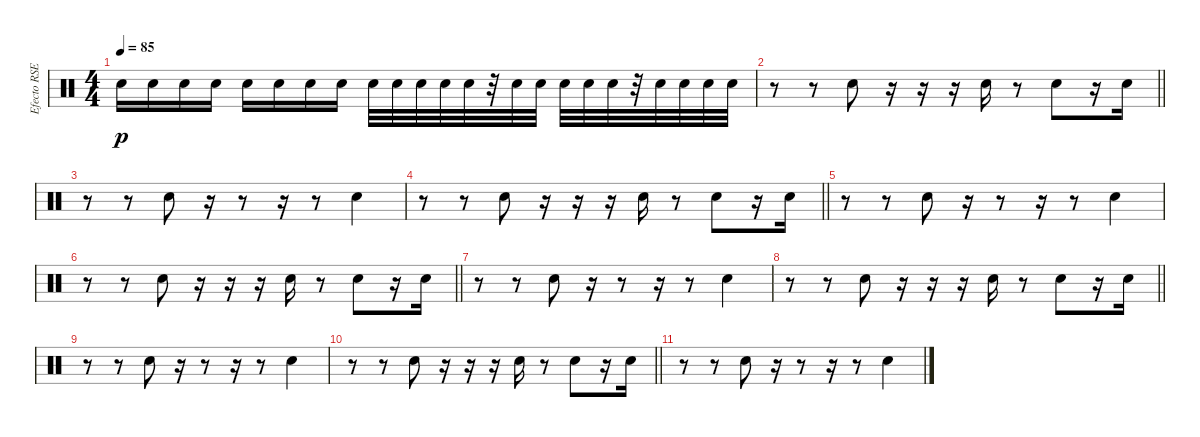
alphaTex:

\track ("Efecto RSE (GP5)" "Efecto RSE") {instrument percussion}
\staff {score}
\articulation defaults
\ts (4 4)
\tempo 85
\clef neutral
\ks c "Electric Snare (hit)".16{dy p} "Electric Snare (hit)".16 "Electric Snare (hit)".16 "Electric Snare (hit)".16 "Electric Snare (hit)".16 "Electric Snare (hit)".16 "Electric Snare (hit)".16 "Electric Snare (hit)".16 "Electric Snare (hit)".32 "Electric Snare (hit)".32 "Electric Snare (hit)".32 "Electric Snare (hit)".32 "Electric Snare (hit)".32
r.32 "Electric Snare (hit)".32 "Electric Snare (hit)".32 "Electric Snare (hit)".32 "Electric Snare (hit)".32 "Electric Snare (hit)".32 r.32 "Electric Snare (hit)".32 "Electric Snare (hit)".32 "Electric Snare (hit)".32 "Electric Snare (hit)".32 |
\barLineRight lightlight
r.8 r.8 "Electric Snare (hit)".8 r.16 r.16 r.16 "Electric Snare (hit)".16 r.8 "Electric Snare (hit)".8 r.16 "Electric Snare (hit)".16 |
r.8 r.8 "Electric Snare (hit)".8 r.16 r.8 r.16 r.8 "Electric Snare (hit)".4 |
\barLineRight lightlight
r.8 r.8 "Electric Snare (hit)".8 r.16 r.16 r.16 "Electric Snare (hit)".16 r.8 "Electric Snare (hit)".8 r.16 "Electric Snare (hit)".16 |
r.8 r.8 "Electric Snare (hit)".8 r.16 r.8 r.16 r.8 "Electric Snare (hit)".4 |
\barLineRight lightlight
r.8 r.8 "Electric Snare (hit)".8 r.16 r.16 r.16 "Electric Snare (hit)".16 r.8 "Electric Snare (hit)".8 r.16 "Electric Snare (hit)".16 |
r.8 r.8 "Electric Snare (hit)".8 r.16 r.8 r.16 r.8 "Electric Snare (hit)".4 |
\barLineRight lightlight
r.8 r.8 "Electric Snare (hit)".8 r.16 r.16 r.16 "Electric Snare (hit)".16 r.8 "Electric Snare (hit)".8 r.16 "Electric Snare (hit)".16 |
r.8 r.8 "Electric Snare (hit)".8 r.16 r.8 r.16 r.8 "Electric Snare (hit)".4 |
\barLineRight lightlight
r.8 r.8 "Electric Snare (hit)".8 r.16 r.16 r.16 "Electric Snare (hit)".16 r.8 "Electric Snare (hit)".8 r.16 "Electric Snare (hit)".16 |
r.8 r.8 "Electric Snare (hit)".8 r.16 r.8 r.16 r.8 "Electric Snare (hit)".4
